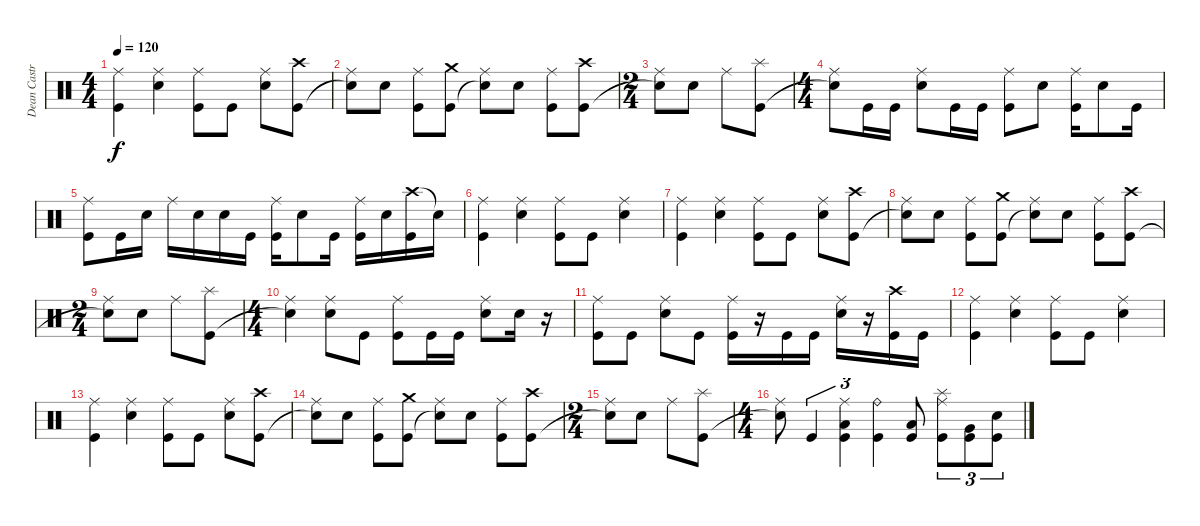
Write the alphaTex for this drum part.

\track ("Dean Castronova" "Dean Castr") {instrument percussion}
\staff {score}
\articulation defaults
\ts (4 4)
\tempo 120
\clef neutral
\ks c
("Ride (middle)" "Kick (hit)").4{dy f} ("Ride (middle)" "Electric Snare (hit)").4 ("Ride (middle)" "Kick (hit)").8 "Kick (hit)".8 ("Ride (middle)" "Electric Snare (hit)").8 ("Crash high (hit)" "Kick (hit)").8 |
("Ride (middle)" "Snare (hit)"{t}).8 "Electric Snare (hit)".8 ("Ride (middle)" "Kick (hit)").8 ("Crash medium (hit)" "Kick (hit)").8 ("Ride (middle)" "Snare (hit)"{t}).8 "Electric Snare (hit)".8 ("Ride (middle)" "Kick (hit)").8 ("Crash high (hit)" "Kick (hit)").8 |
\ts (2 4)
("Ride (middle)" "Snare (hit)"{t}).8 "Electric Snare (hit)".8 "Ride (middle)".8 ("Splash (hit)" "Kick (hit)").8 |
\ts (4 4)
("Ride (middle)" "Snare (hit)"{t}).8 "Kick (hit)".16 "Kick (hit)".16 ("Ride (middle)" "Electric Snare (hit)").8 "Kick (hit)".16 "Kick (hit)".16 ("Ride (middle)" "Kick (hit)").8 "Electric Snare (hit)".8 ("Ride (middle)" "Kick (hit)").16 "Electric Snare (hit)".8 "Kick (hit)".16 |
("Ride (middle)" "Kick (hit)").8 "Kick (hit)".16 "Electric Snare (hit)".16 "Ride (middle)".16 "Electric Snare (hit)".16 "Electric Snare (hit)".16 "Kick (hit)".16 ("Ride (middle)" "Kick (hit)").16 "Electric Snare (hit)".8 "Kick (hit)".16 ("Ride (middle)" "Kick (hit)").16 "Electric Snare (hit)".16 ("Crash high (hit)" "Kick (hit)").16 "Snare (hit)"{t}.16 |
("Ride (middle)" "Kick (hit)").4 ("Ride (middle)" "Electric Snare (hit)").4 ("Ride (middle)" "Kick (hit)").8 "Kick (hit)".8 ("Ride (middle)" "Electric Snare (hit)").4 |
("Ride (middle)" "Kick (hit)").4 ("Ride (middle)" "Electric Snare (hit)").4 ("Ride (middle)" "Kick (hit)").8 "Kick (hit)".8 ("Ride (middle)" "Electric Snare (hit)").8 ("Crash high (hit)" "Kick (hit)").8 |
("Ride (middle)" "Snare (hit)"{t}).8 "Electric Snare (hit)".8 ("Ride (middle)" "Kick (hit)").8 ("Crash medium (hit)" "Kick (hit)").8 ("Ride (middle)" "Snare (hit)"{t}).8 "Electric Snare (hit)".8 ("Ride (middle)" "Kick (hit)").8 ("Crash high (hit)" "Kick (hit)").8 |
\ts (2 4)
("Ride (middle)" "Snare (hit)"{t}).8 "Electric Snare (hit)".8 "Ride (middle)".8 ("Splash (hit)" "Kick (hit)").8 |
\ts (4 4)
("Ride (middle)" "Snare (hit)"{t}).4 ("Ride (middle)" "Electric Snare (hit)").8 "Kick (hit)".8 ("Ride (middle)" "Kick (hit)").8 "Kick (hit)".16 "Kick (hit)".16 ("Ride (middle)" "Electric Snare (hit)").8 "Electric Snare (hit)".16 r.16 |
("Ride (middle)" "Kick (hit)").8 "Kick (hit)".8 ("Ride (middle)" "Electric Snare (hit)").8 "Kick (hit)".8 ("Ride (middle)" "Kick (hit)").16 r.16 "Kick (hit)".16 "Kick (hit)".16 ("Ride (middle)" "Electric Snare (hit)").16 r.16 ("Crash high (hit)" "Kick (hit)").16 "Kick (hit)".16 |
("Ride (middle)" "Kick (hit)").4 ("Ride (middle)" "Electric Snare (hit)").4 ("Ride (middle)" "Kick (hit)").8 "Kick (hit)".8 ("Ride (middle)" "Electric Snare (hit)").4 |
("Ride (middle)" "Kick (hit)").4 ("Ride (middle)" "Electric Snare (hit)").4 ("Ride (middle)" "Kick (hit)").8 "Kick (hit)".8 ("Ride (middle)" "Electric Snare (hit)").8 ("Crash high (hit)" "Kick (hit)").8 |
("Ride (middle)" "Snare (hit)"{t}).8 "Electric Snare (hit)".8 ("Ride (middle)" "Kick (hit)").8 ("Crash medium (hit)" "Kick (hit)").8 ("Ride (middle)" "Snare (hit)"{t}).8 "Electric Snare (hit)".8 ("Ride (middle)" "Kick (hit)").8 ("Crash high (hit)" "Kick (hit)").8 |
\ts (2 4)
("Ride (middle)" "Snare (hit)"{t}).8 "Electric Snare (hit)".8 "Ride (middle)".8 ("Splash (hit)" "Kick (hit)").8 |
\ts (4 4)
("Ride (middle)" "Snare (hit)"{t}).8 "Kick (hit)".4{tu (3 2)} ("Ride (middle)" "Low Floor Tom (hit)" "Kick (hit)").4{tu (3 2)} ("Ride (bell)" "Kick (hit)").4{tu (3 2)} ("Low Tom (hit)" "Kick (hit)").8 ("Ride (middle)" "Splash (hit)" "Kick (hit)").8{tu (3 2)} ("Very Low Tom (hit)" "Kick (hit)").8{tu (3 2)} ("Electric Snare (hit)" "Kick (hit)").8{tu (3 2)}
